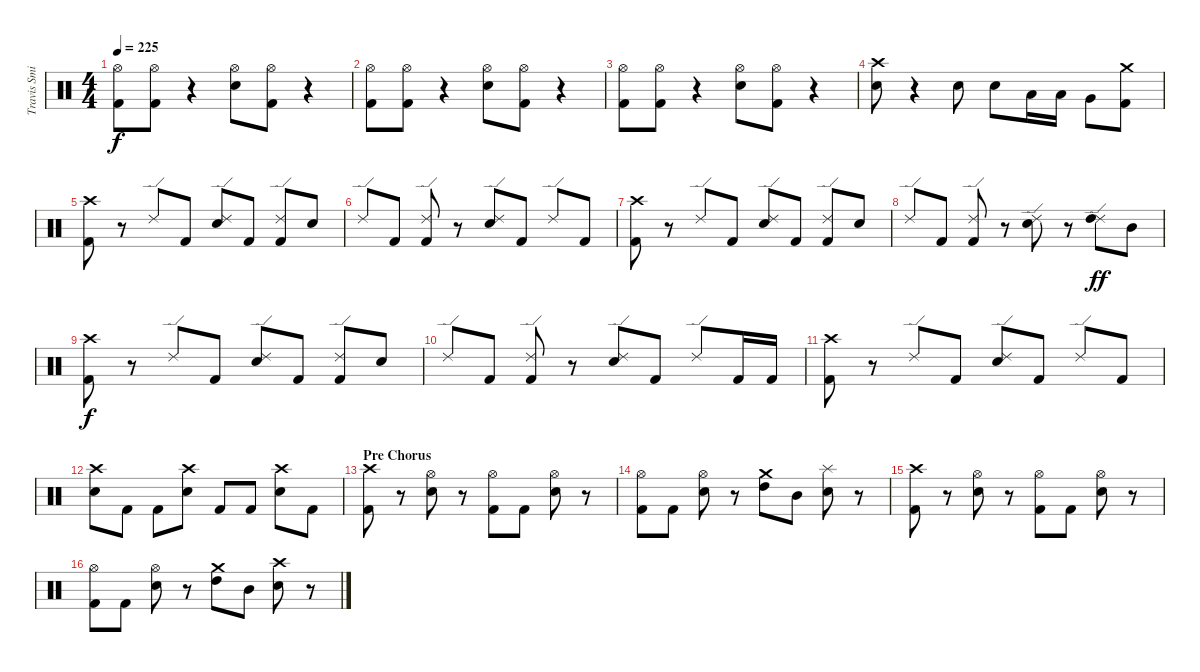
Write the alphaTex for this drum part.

\track ("Travis Smith" "Travis Smi") {instrument percussion}
\staff {score}
\articulation defaults
\ts (4 4)
\tempo 225
\clef neutral
\ks c
("Hi-Hat (open)" "Kick (hit) 2").8{dy f} ("Hi-Hat (open)" "Kick (hit) 2").8 r.4 ("Hi-Hat (open)" "Electric Snare (hit)").8 ("Hi-Hat (open)" "Kick (hit) 2").8 r.4 |
("Hi-Hat (open)" "Kick (hit) 2").8 ("Hi-Hat (open)" "Kick (hit) 2").8 r.4 ("Hi-Hat (open)" "Electric Snare (hit)").8 ("Hi-Hat (open)" "Kick (hit) 2").8 r.4 |
("Hi-Hat (open)" "Kick (hit) 2").8 ("Hi-Hat (open)" "Kick (hit) 2").8 r.4 ("Hi-Hat (open)" "Electric Snare (hit)").8 ("Hi-Hat (open)" "Kick (hit) 2").8 r.4 |
("Crash high (hit)" "Electric Snare (hit)").8 r.4 "Electric Snare (hit)".8 "Electric Snare (hit)".8 "Low Tom (hit)".16 "Low Tom (hit)".16 "Very Low Tom (hit)".8 ("Crash medium (hit)" "Kick (hit) 2").8 |
("Crash high (hit)" "Kick (hit) 2").8 r.8 "Ride (edge) 2".8 "Kick (hit) 2".8 ("Ride (edge) 2" "Electric Snare (hit)").8 "Kick (hit) 2".8 ("Ride (edge) 2" "Kick (hit) 2").8 "Electric Snare (hit)".8 |
"Ride (edge) 2".8 "Kick (hit) 2".8 ("Ride (edge) 2" "Kick (hit) 2").8 r.8 ("Ride (edge) 2" "Electric Snare (hit)").8 "Kick (hit) 2".8 "Ride (edge) 2".8 "Kick (hit) 2".8 |
("Crash high (hit)" "Kick (hit) 2").8 r.8 "Ride (edge) 2".8 "Kick (hit) 2".8 ("Ride (edge) 2" "Electric Snare (hit)").8 "Kick (hit) 2".8 ("Ride (edge) 2" "Kick (hit) 2").8 "Electric Snare (hit)".8 |
"Ride (edge) 2".8 "Kick (hit) 2".8 ("Ride (edge) 2" "Kick (hit) 2").8 r.8 ("Ride (edge) 2" "Electric Snare (hit)").8 r.8 ("Ride (edge) 2" "High Tom (hit)").8{dy ff} "Mid Tom (hit)".8 |
("Crash high (hit)" "Kick (hit) 2").8{dy f} r.8 "Ride (edge) 2".8 "Kick (hit) 2".8 ("Ride (edge) 2" "Electric Snare (hit)").8 "Kick (hit) 2".8 ("Ride (edge) 2" "Kick (hit) 2").8 "Electric Snare (hit)".8 |
"Ride (edge) 2".8 "Kick (hit) 2".8 ("Ride (edge) 2" "Kick (hit) 2").8 r.8 ("Ride (edge) 2" "Electric Snare (hit)").8 "Kick (hit) 2".8 "Ride (edge) 2".8 "Kick (hit) 2".16 "Kick (hit) 2".16 |
("Crash high (hit)" "Kick (hit) 2").8 r.8 "Ride (edge) 2".8 "Kick (hit) 2".8 ("Ride (edge) 2" "Electric Snare (hit)").8 "Kick (hit) 2".8 "Ride (edge) 2".8 "Kick (hit) 2".8 |
("Crash high (hit)" "Electric Snare (hit)").8 "Kick (hit) 2".8 "Kick (hit) 2".8 ("Crash high (hit)" "Electric Snare (hit)").8 "Kick (hit) 2".8 "Kick (hit) 2".8 ("Crash high (hit)" "Electric Snare (hit)").8 "Kick (hit) 2".8 |
\section ("" "Pre Chorus")
("Crash high (hit)" "Kick (hit) 2").8 r.8 ("Hi-Hat (open)" "Electric Snare (hit)").8 r.8 ("Hi-Hat (open)" "Kick (hit) 2").8 "Kick (hit) 2".8 ("Hi-Hat (open)" "Electric Snare (hit)").8 r.8 |
("Hi-Hat (open)" "Kick (hit) 2").8 "Kick (hit) 2".8 ("Hi-Hat (open)" "Electric Snare (hit)").8 r.8 ("Crash medium (hit)" "High Tom (hit)").8 "Mid Tom (hit)".8 ("Splash (hit)" "Electric Snare (hit)").8 r.8 |
("Crash high (hit)" "Kick (hit) 2").8 r.8 ("Hi-Hat (open)" "Electric Snare (hit)").8 r.8 ("Hi-Hat (open)" "Kick (hit) 2").8 "Kick (hit) 2".8 ("Hi-Hat (open)" "Electric Snare (hit)").8 r.8 |
("Hi-Hat (open)" "Kick (hit) 2").8 "Kick (hit) 2".8 ("Hi-Hat (open)" "Electric Snare (hit)").8 r.8 ("Crash medium (hit)" "High Tom (hit)").8 "Mid Tom (hit)".8 ("Crash high (hit)" "Electric Snare (hit)").8 r.8
